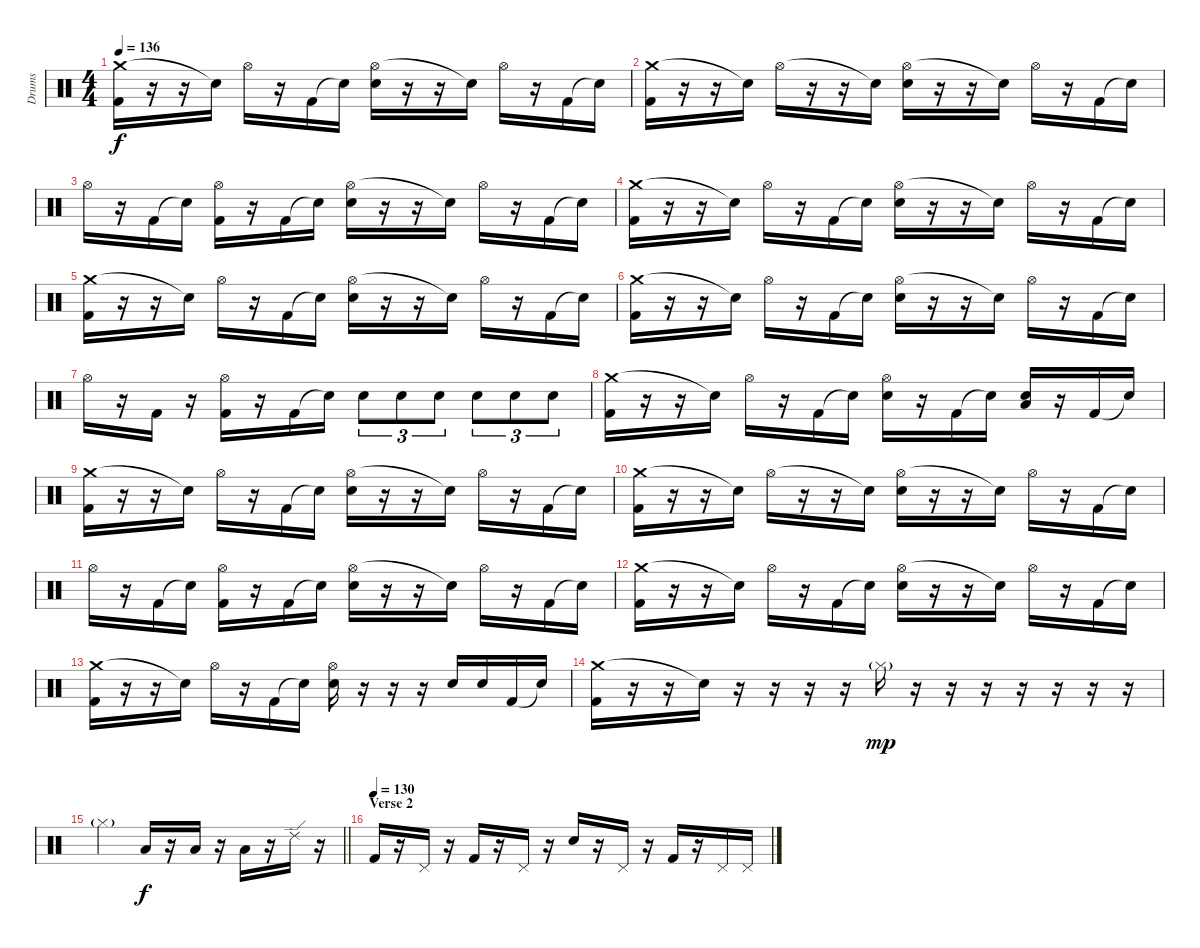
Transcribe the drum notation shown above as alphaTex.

\track ("Drums" "Drums") {instrument percussion}
\staff {score}
\articulation defaults
\ts (4 4)
\tempo 136
\clef neutral
\ks c
("Crash medium (hit)" "Kick (hit) 2").16{dy f} r.16 r.16 "Snare (hit)"{t}.16 "Hi-Hat (open)".16 r.16 "Kick (hit) 2".16 "Snare (hit)"{t}.16 ("Hi-Hat (open)" "Electric Snare (hit)").16 r.16 r.16 "Snare (hit)"{t}.16 "Hi-Hat (open)".16 r.16 "Kick (hit) 2".16 "Snare (hit)"{t}.16 |
("Crash medium (hit)" "Kick (hit) 2").16 r.16 r.16 "Snare (hit)"{t}.16 "Hi-Hat (open)".16 r.16 r.16 "Snare (hit)"{t}.16 ("Hi-Hat (open)" "Electric Snare (hit)").16 r.16 r.16 "Snare (hit)"{t}.16 "Hi-Hat (open)".16 r.16 "Kick (hit) 2".16 "Snare (hit)"{t}.16 |
"Hi-Hat (open)".16 r.16 "Kick (hit) 2".16 "Snare (hit)"{t}.16 ("Hi-Hat (open)" "Kick (hit) 2").16 r.16 "Kick (hit) 2".16 "Snare (hit)"{t}.16 ("Hi-Hat (open)" "Electric Snare (hit)").16 r.16 r.16 "Snare (hit)"{t}.16 "Hi-Hat (open)".16 r.16 "Kick (hit) 2".16 "Snare (hit)"{t}.16 |
("Crash medium (hit)" "Kick (hit) 2").16 r.16 r.16 "Snare (hit)"{t}.16 "Hi-Hat (open)".16 r.16 "Kick (hit) 2".16 "Snare (hit)"{t}.16 ("Hi-Hat (open)" "Electric Snare (hit)").16 r.16 r.16 "Snare (hit)"{t}.16 "Hi-Hat (open)".16 r.16 "Kick (hit) 2".16 "Snare (hit)"{t}.16 |
("Crash medium (hit)" "Kick (hit) 2").16 r.16 r.16 "Snare (hit)"{t}.16 "Hi-Hat (open)".16 r.16 "Kick (hit) 2".16 "Snare (hit)"{t}.16 ("Hi-Hat (open)" "Electric Snare (hit)").16 r.16 r.16 "Snare (hit)"{t}.16 "Hi-Hat (open)".16 r.16 "Kick (hit) 2".16 "Snare (hit)"{t}.16 |
("Crash medium (hit)" "Kick (hit) 2").16 r.16 r.16 "Snare (hit)"{t}.16 "Hi-Hat (open)".16 r.16 "Kick (hit) 2".16 "Snare (hit)"{t}.16 ("Hi-Hat (open)" "Electric Snare (hit)").16 r.16 r.16 "Snare (hit)"{t}.16 "Hi-Hat (open)".16 r.16 "Kick (hit) 2".16 "Snare (hit)"{t}.16 |
"Hi-Hat (open)".16 r.16 "Kick (hit) 2".16 r.16 ("Hi-Hat (open)" "Kick (hit) 2").16 r.16 "Kick (hit) 2".16 "Snare (hit)"{t}.16 "Electric Snare (hit)".8{tu (3 2)} "Electric Snare (hit)".8{tu (3 2)} "Electric Snare (hit)".8{tu (3 2)} "Electric Snare (hit)".8{tu (3 2)} "Electric Snare (hit)".8{tu (3 2)} "Electric Snare (hit)".8{tu (3 2)} |
("Crash medium (hit)" "Kick (hit) 2").16 r.16 r.16 "Snare (hit)"{t}.16 "Hi-Hat (open)".16 r.16 "Kick (hit) 2".16 "Snare (hit)"{t}.16 ("Hi-Hat (open)" "Electric Snare (hit)").16 r.16 "Kick (hit) 2".16 "Snare (hit)"{t}.16 ("Low Floor Tom (hit)" "Electric Snare (hit)").16 r.16 "Kick (hit) 2".16 "Snare (hit)"{t}.16 |
("Crash medium (hit)" "Kick (hit) 2").16 r.16 r.16 "Snare (hit)"{t}.16 "Hi-Hat (open)".16 r.16 "Kick (hit) 2".16 "Snare (hit)"{t}.16 ("Hi-Hat (open)" "Electric Snare (hit)").16 r.16 r.16 "Snare (hit)"{t}.16 "Hi-Hat (open)".16 r.16 "Kick (hit) 2".16 "Snare (hit)"{t}.16 |
("Crash medium (hit)" "Kick (hit) 2").16 r.16 r.16 "Snare (hit)"{t}.16 "Hi-Hat (open)".16 r.16 r.16 "Snare (hit)"{t}.16 ("Hi-Hat (open)" "Electric Snare (hit)").16 r.16 r.16 "Snare (hit)"{t}.16 "Hi-Hat (open)".16 r.16 "Kick (hit) 2".16 "Snare (hit)"{t}.16 |
"Hi-Hat (open)".16 r.16 "Kick (hit) 2".16 "Snare (hit)"{t}.16 ("Hi-Hat (open)" "Kick (hit) 2").16 r.16 "Kick (hit) 2".16 "Snare (hit)"{t}.16 ("Hi-Hat (open)" "Electric Snare (hit)").16 r.16 r.16 "Snare (hit)"{t}.16 "Hi-Hat (open)".16 r.16 "Kick (hit) 2".16 "Snare (hit)"{t}.16 |
("Crash medium (hit)" "Kick (hit) 2").16 r.16 r.16 "Snare (hit)"{t}.16 "Hi-Hat (open)".16 r.16 "Kick (hit) 2".16 "Snare (hit)"{t}.16 ("Hi-Hat (open)" "Electric Snare (hit)").16 r.16 r.16 "Snare (hit)"{t}.16 "Hi-Hat (open)".16 r.16 "Kick (hit) 2".16 "Snare (hit)"{t}.16 |
("Crash medium (hit)" "Kick (hit) 2").16 r.16 r.16 "Snare (hit)"{t}.16 "Hi-Hat (open)".16 r.16 "Kick (hit) 2".16 "Snare (hit)"{t}.16 ("Hi-Hat (open)" "Electric Snare (hit)").16 r.16 r.16 r.16 "Electric Snare (hit)".16 "Electric Snare (hit)".16 "Kick (hit) 2".16 "Snare (hit)"{t}.16 |
("Crash medium (hit)" "Kick (hit) 2").16 r.16 r.16 "Snare (hit)"{t}.16 r.16 r.16 r.16 r.16 "Hi-Hat (closed)"{g}.16{dy mp} r.16 r.16 r.16 r.16 r.16 r.16 r.16 |
\barLineRight lightlight "Hi-Hat (closed)"{g}.2 "Low Tom (hit)".16{dy f}
r.16 "Low Floor Tom (hit)".16 r.16 "Low Floor Tom (hit)".16 r.16 "Ride (edge) 2".16 r.16 |
\section ("" "Verse 2")
\tempo (130)
"Kick (hit) 2".16 r.16 "Pedal Hi-Hat (hit)".16 r.16 "Kick (hit) 2".16 r.16 "Pedal Hi-Hat (hit)".16 r.16 "Electric Snare (hit)".16 r.16 "Pedal Hi-Hat (hit)".16 r.16 "Kick (hit) 2".16 r.16 "Pedal Hi-Hat (hit)".16 "Pedal Hi-Hat (hit)".16
